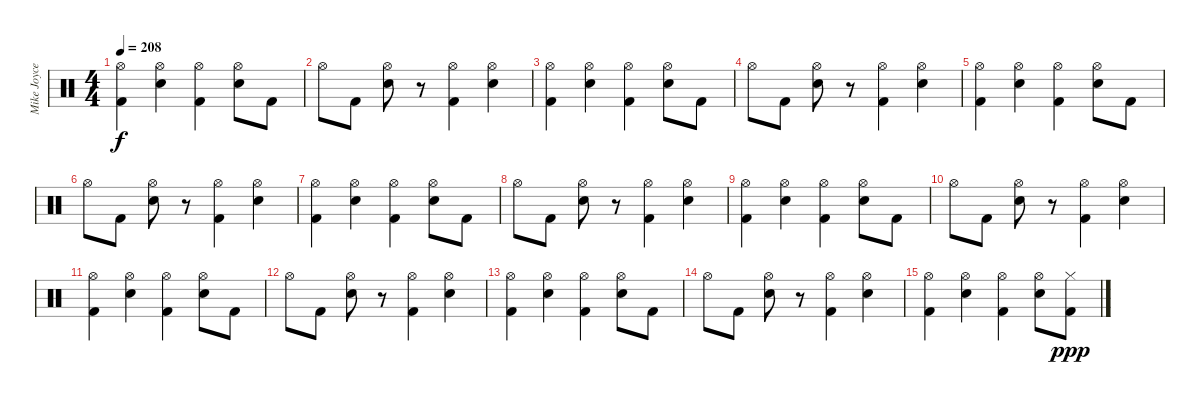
\track ("Mike Joyce" "Mike Joyce") {instrument percussion}
\staff {score}
\articulation defaults
\ts (4 4)
\tempo 208
\clef neutral
\ks c
("Hi-Hat (open)" "Kick (hit) 2").4{dy f} ("Hi-Hat (open)" "Snare (hit) 2").4 ("Hi-Hat (open)" "Kick (hit) 2").4 ("Hi-Hat (open)" "Snare (hit) 2").8 "Kick (hit) 2".8 |
"Hi-Hat (open)".8 "Kick (hit) 2".8 ("Hi-Hat (open)" "Snare (hit) 2").8 r.8 ("Hi-Hat (open)" "Kick (hit) 2").4 ("Hi-Hat (open)" "Snare (hit) 2").4 |
("Hi-Hat (open)" "Kick (hit) 2").4 ("Hi-Hat (open)" "Snare (hit) 2").4 ("Hi-Hat (open)" "Kick (hit) 2").4 ("Hi-Hat (open)" "Snare (hit) 2").8 "Kick (hit) 2".8 |
"Hi-Hat (open)".8 "Kick (hit) 2".8 ("Hi-Hat (open)" "Snare (hit) 2").8 r.8 ("Hi-Hat (open)" "Kick (hit) 2").4 ("Hi-Hat (open)" "Snare (hit) 2").4 |
("Hi-Hat (open)" "Kick (hit) 2").4 ("Hi-Hat (open)" "Snare (hit) 2").4 ("Hi-Hat (open)" "Kick (hit) 2").4 ("Hi-Hat (open)" "Snare (hit) 2").8 "Kick (hit) 2".8 |
"Hi-Hat (open)".8 "Kick (hit) 2".8 ("Hi-Hat (open)" "Snare (hit) 2").8 r.8 ("Hi-Hat (open)" "Kick (hit) 2").4 ("Hi-Hat (open)" "Snare (hit) 2").4 |
("Hi-Hat (open)" "Kick (hit) 2").4 ("Hi-Hat (open)" "Snare (hit) 2").4 ("Hi-Hat (open)" "Kick (hit) 2").4 ("Hi-Hat (open)" "Snare (hit) 2").8 "Kick (hit) 2".8 |
"Hi-Hat (open)".8 "Kick (hit) 2".8 ("Hi-Hat (open)" "Snare (hit) 2").8 r.8 ("Hi-Hat (open)" "Kick (hit) 2").4 ("Hi-Hat (open)" "Snare (hit) 2").4 |
("Hi-Hat (open)" "Kick (hit) 2").4 ("Hi-Hat (open)" "Snare (hit) 2").4 ("Hi-Hat (open)" "Kick (hit) 2").4 ("Hi-Hat (open)" "Snare (hit) 2").8 "Kick (hit) 2".8 |
"Hi-Hat (open)".8 "Kick (hit) 2".8 ("Hi-Hat (open)" "Snare (hit) 2").8 r.8 ("Hi-Hat (open)" "Kick (hit) 2").4 ("Hi-Hat (open)" "Snare (hit) 2").4 |
("Hi-Hat (open)" "Kick (hit) 2").4 ("Hi-Hat (open)" "Snare (hit) 2").4 ("Hi-Hat (open)" "Kick (hit) 2").4 ("Hi-Hat (open)" "Snare (hit) 2").8 "Kick (hit) 2".8 |
"Hi-Hat (open)".8 "Kick (hit) 2".8 ("Hi-Hat (open)" "Snare (hit) 2").8 r.8 ("Hi-Hat (open)" "Kick (hit) 2").4 ("Hi-Hat (open)" "Snare (hit) 2").4 |
("Hi-Hat (open)" "Kick (hit) 2").4 ("Hi-Hat (open)" "Snare (hit) 2").4 ("Hi-Hat (open)" "Kick (hit) 2").4 ("Hi-Hat (open)" "Snare (hit) 2").8 "Kick (hit) 2".8 |
"Hi-Hat (open)".8 "Kick (hit) 2".8 ("Hi-Hat (open)" "Snare (hit) 2").8 r.8 ("Hi-Hat (open)" "Kick (hit) 2").4 ("Hi-Hat (open)" "Snare (hit) 2").4 |
("Hi-Hat (open)" "Kick (hit) 2").4 ("Hi-Hat (open)" "Snare (hit) 2").4 ("Hi-Hat (open)" "Kick (hit) 2").4 ("Hi-Hat (open)" "Snare (hit) 2").8 ("Hi-Hat (closed)" "Kick (hit) 2").8{dy ppp}
